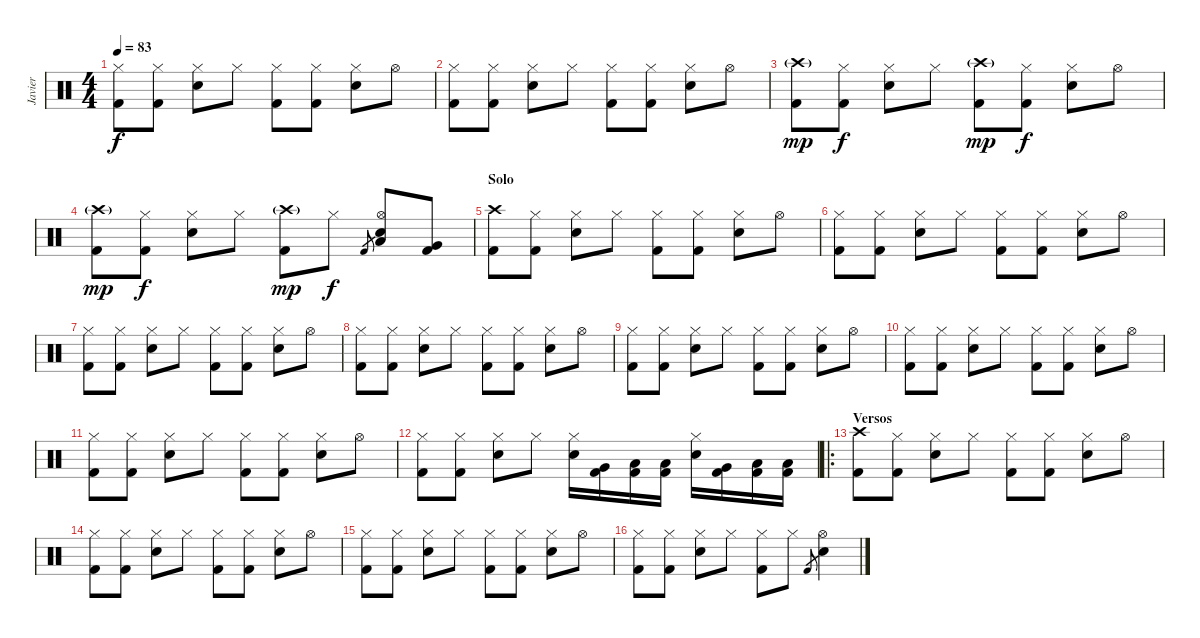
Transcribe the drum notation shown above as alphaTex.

\track ("Javier" "Javier") {instrument percussion}
\staff {score}
\articulation defaults
\ts (4 4)
\tempo 83
\clef neutral
\ks c
("Hi-Hat (closed)" "Kick (hit) 2").8{dy f} ("Hi-Hat (closed)" "Kick (hit) 2").8 ("Hi-Hat (closed)" "Snare (hit) 2").8 "Hi-Hat (closed)".8 ("Hi-Hat (closed)" "Kick (hit) 2").8 ("Hi-Hat (closed)" "Kick (hit) 2").8 ("Hi-Hat (closed)" "Snare (hit) 2").8 "Hi-Hat (open)".8 |
("Hi-Hat (closed)" "Kick (hit) 2").8 ("Hi-Hat (closed)" "Kick (hit) 2").8 ("Hi-Hat (closed)" "Snare (hit) 2").8 "Hi-Hat (closed)".8 ("Hi-Hat (closed)" "Kick (hit) 2").8 ("Hi-Hat (closed)" "Kick (hit) 2").8 ("Hi-Hat (closed)" "Snare (hit) 2").8 "Hi-Hat (open)".8 |
("Crash high (hit)"{g} "Kick (hit) 2").8{dy mp} ("Hi-Hat (closed)" "Kick (hit) 2").8{dy f} ("Hi-Hat (closed)" "Snare (hit) 2").8 "Hi-Hat (closed)".8 ("Crash high (hit)"{g} "Kick (hit) 2").8{dy mp} ("Hi-Hat (closed)" "Kick (hit) 2").8{dy f} ("Hi-Hat (closed)" "Snare (hit) 2").8 "Hi-Hat (open)".8 |
("Crash high (hit)"{g} "Kick (hit) 2").8{dy mp} ("Hi-Hat (closed)" "Kick (hit) 2").8{dy f} ("Hi-Hat (closed)" "Snare (hit) 2").8 "Hi-Hat (closed)".8 ("Crash high (hit)"{g} "Kick (hit) 2").8{dy mp} "Hi-Hat (closed)".8{dy f} "Kick (hit) 2".8{gr} ("Hi-Hat (open)" "Low Floor Tom (hit)" "Snare (hit) 2").8 ("Very Low Tom (hit)" "Kick (hit) 2").8 |
\section ("" "Solo")
("Crash high (hit)" "Kick (hit) 2").8 ("Hi-Hat (closed)" "Kick (hit) 2").8 ("Hi-Hat (closed)" "Snare (hit) 2").8 "Hi-Hat (closed)".8 ("Hi-Hat (closed)" "Kick (hit) 2").8 ("Hi-Hat (closed)" "Kick (hit) 2").8 ("Hi-Hat (closed)" "Snare (hit) 2").8 "Hi-Hat (open)".8 |
("Hi-Hat (closed)" "Kick (hit) 2").8 ("Hi-Hat (closed)" "Kick (hit) 2").8 ("Hi-Hat (closed)" "Snare (hit) 2").8 "Hi-Hat (closed)".8 ("Hi-Hat (closed)" "Kick (hit) 2").8 ("Hi-Hat (closed)" "Kick (hit) 2").8 ("Hi-Hat (closed)" "Snare (hit) 2").8 "Hi-Hat (open)".8 |
("Hi-Hat (closed)" "Kick (hit) 2").8 ("Hi-Hat (closed)" "Kick (hit) 2").8 ("Hi-Hat (closed)" "Snare (hit) 2").8 "Hi-Hat (closed)".8 ("Hi-Hat (closed)" "Kick (hit) 2").8 ("Hi-Hat (closed)" "Kick (hit) 2").8 ("Hi-Hat (closed)" "Snare (hit) 2").8 "Hi-Hat (open)".8 |
("Hi-Hat (closed)" "Kick (hit) 2").8 ("Hi-Hat (closed)" "Kick (hit) 2").8 ("Hi-Hat (closed)" "Snare (hit) 2").8 "Hi-Hat (closed)".8 ("Hi-Hat (closed)" "Kick (hit) 2").8 ("Hi-Hat (closed)" "Kick (hit) 2").8 ("Hi-Hat (closed)" "Snare (hit) 2").8 "Hi-Hat (open)".8 |
("Hi-Hat (closed)" "Kick (hit) 2").8 ("Hi-Hat (closed)" "Kick (hit) 2").8 ("Hi-Hat (closed)" "Snare (hit) 2").8 "Hi-Hat (closed)".8 ("Hi-Hat (closed)" "Kick (hit) 2").8 ("Hi-Hat (closed)" "Kick (hit) 2").8 ("Hi-Hat (closed)" "Snare (hit) 2").8 "Hi-Hat (open)".8 |
("Hi-Hat (closed)" "Kick (hit) 2").8 ("Hi-Hat (closed)" "Kick (hit) 2").8 ("Hi-Hat (closed)" "Snare (hit) 2").8 "Hi-Hat (closed)".8 ("Hi-Hat (closed)" "Kick (hit) 2").8 ("Hi-Hat (closed)" "Kick (hit) 2").8 ("Hi-Hat (closed)" "Snare (hit) 2").8 "Hi-Hat (open)".8 |
("Hi-Hat (closed)" "Kick (hit) 2").8 ("Hi-Hat (closed)" "Kick (hit) 2").8 ("Hi-Hat (closed)" "Snare (hit) 2").8 "Hi-Hat (closed)".8 ("Hi-Hat (closed)" "Kick (hit) 2").8 ("Hi-Hat (closed)" "Kick (hit) 2").8 ("Hi-Hat (closed)" "Snare (hit) 2").8 "Hi-Hat (open)".8 |
("Hi-Hat (closed)" "Kick (hit) 2").8 ("Hi-Hat (closed)" "Kick (hit) 2").8 ("Hi-Hat (closed)" "Snare (hit) 2").8 "Hi-Hat (closed)".8 ("Hi-Hat (closed)" "Snare (hit) 2").16 ("Very Low Tom (hit)" "Kick (hit) 2").16 ("Low Tom (hit)" "Kick (hit) 2").16 ("Low Floor Tom (hit)" "Kick (hit) 2").16 ("Hi-Hat (closed)" "Snare (hit) 2").16 ("Very Low Tom (hit)" "Kick (hit) 2").16 ("Low Tom (hit)" "Kick (hit) 2").16 ("Low Floor Tom (hit)" "Kick (hit) 2").16 |
\ro
\section ("" "Versos")
("Crash high (hit)" "Kick (hit) 2").8 ("Hi-Hat (closed)" "Kick (hit) 2").8 ("Hi-Hat (closed)" "Snare (hit) 2").8 "Hi-Hat (closed)".8 ("Hi-Hat (closed)" "Kick (hit) 2").8 ("Hi-Hat (closed)" "Kick (hit) 2").8 ("Hi-Hat (closed)" "Snare (hit) 2").8 "Hi-Hat (open)".8 |
("Hi-Hat (closed)" "Kick (hit) 2").8 ("Hi-Hat (closed)" "Kick (hit) 2").8 ("Hi-Hat (closed)" "Snare (hit) 2").8 "Hi-Hat (closed)".8 ("Hi-Hat (closed)" "Kick (hit) 2").8 ("Hi-Hat (closed)" "Kick (hit) 2").8 ("Hi-Hat (closed)" "Snare (hit) 2").8 "Hi-Hat (open)".8 |
("Hi-Hat (closed)" "Kick (hit) 2").8 ("Hi-Hat (closed)" "Kick (hit) 2").8 ("Hi-Hat (closed)" "Snare (hit) 2").8 "Hi-Hat (closed)".8 ("Hi-Hat (closed)" "Kick (hit) 2").8 ("Hi-Hat (closed)" "Kick (hit) 2").8 ("Hi-Hat (closed)" "Snare (hit) 2").8 "Hi-Hat (open)".8 |
("Hi-Hat (closed)" "Kick (hit) 2").8 ("Hi-Hat (closed)" "Kick (hit) 2").8 ("Hi-Hat (closed)" "Snare (hit) 2").8 "Hi-Hat (closed)".8 ("Hi-Hat (closed)" "Kick (hit) 2").8 "Hi-Hat (closed)".8 "Kick (hit) 2".8{gr} ("Hi-Hat (open)" "Snare (hit) 2").4
